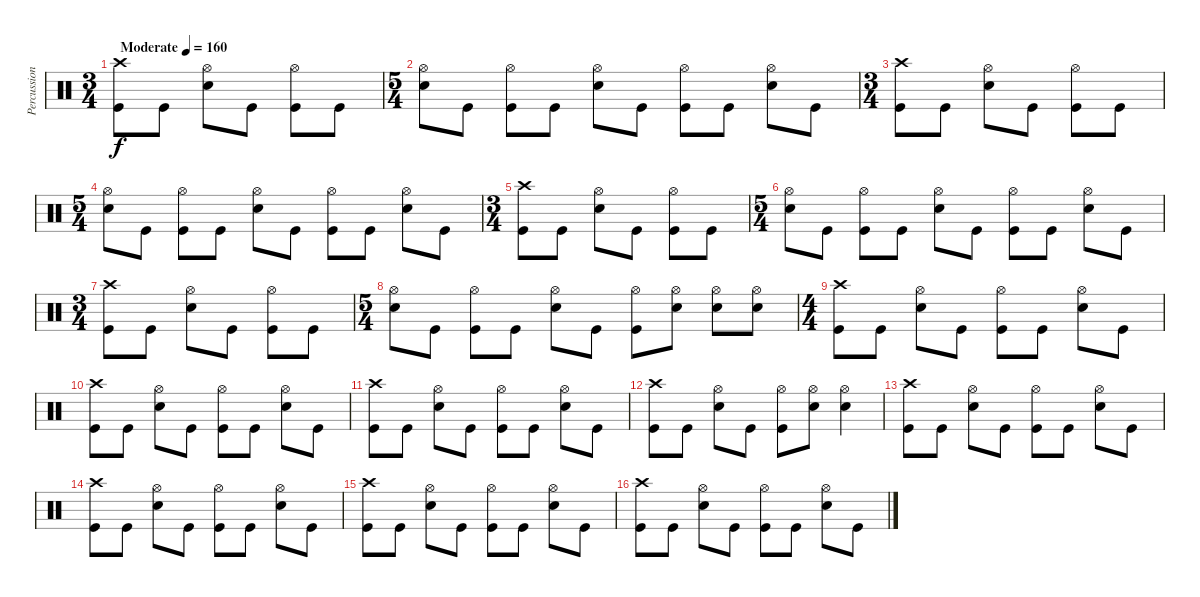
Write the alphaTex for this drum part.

\track ("Percussion" "Percussion") {instrument percussion}
\staff {score}
\articulation defaults
\ts (3 4)
\tempo (160 "Moderate")
\clef neutral
\ks c
("Crash high (hit)" "Kick (hit)").8{dy f} "Kick (hit)".8 ("Hi-Hat (open)" "Snare (hit) 2").8 "Kick (hit)".8 ("Hi-Hat (open)" "Kick (hit)").8 "Kick (hit)".8 |
\ts (5 4)
("Hi-Hat (open)" "Snare (hit) 2").8 "Kick (hit)".8 ("Hi-Hat (open)" "Kick (hit)").8 "Kick (hit)".8 ("Hi-Hat (open)" "Snare (hit) 2").8 "Kick (hit)".8 ("Hi-Hat (open)" "Kick (hit)").8 "Kick (hit)".8 ("Hi-Hat (open)" "Snare (hit) 2").8 "Kick (hit)".8 |
\ts (3 4)
("Crash high (hit)" "Kick (hit)").8 "Kick (hit)".8 ("Hi-Hat (open)" "Snare (hit) 2").8 "Kick (hit)".8 ("Hi-Hat (open)" "Kick (hit)").8 "Kick (hit)".8 |
\ts (5 4)
("Hi-Hat (open)" "Snare (hit) 2").8 "Kick (hit)".8 ("Hi-Hat (open)" "Kick (hit)").8 "Kick (hit)".8 ("Hi-Hat (open)" "Snare (hit) 2").8 "Kick (hit)".8 ("Hi-Hat (open)" "Kick (hit)").8 "Kick (hit)".8 ("Hi-Hat (open)" "Snare (hit) 2").8 "Kick (hit)".8 |
\ts (3 4)
("Crash high (hit)" "Kick (hit)").8 "Kick (hit)".8 ("Hi-Hat (open)" "Snare (hit) 2").8 "Kick (hit)".8 ("Hi-Hat (open)" "Kick (hit)").8 "Kick (hit)".8 |
\ts (5 4)
("Hi-Hat (open)" "Snare (hit) 2").8 "Kick (hit)".8 ("Hi-Hat (open)" "Kick (hit)").8 "Kick (hit)".8 ("Hi-Hat (open)" "Snare (hit) 2").8 "Kick (hit)".8 ("Hi-Hat (open)" "Kick (hit)").8 "Kick (hit)".8 ("Hi-Hat (open)" "Snare (hit) 2").8 "Kick (hit)".8 |
\ts (3 4)
("Crash high (hit)" "Kick (hit)").8 "Kick (hit)".8 ("Hi-Hat (open)" "Snare (hit) 2").8 "Kick (hit)".8 ("Hi-Hat (open)" "Kick (hit)").8 "Kick (hit)".8 |
\ts (5 4)
("Hi-Hat (open)" "Snare (hit) 2").8 "Kick (hit)".8 ("Hi-Hat (open)" "Kick (hit)").8 "Kick (hit)".8 ("Hi-Hat (open)" "Snare (hit) 2").8 "Kick (hit)".8 ("Hi-Hat (open)" "Kick (hit)").8 ("Hi-Hat (open)" "Snare (hit) 2").8 ("Hi-Hat (open)" "Snare (hit) 2").8 ("Hi-Hat (open)" "Snare (hit) 2").8 |
\ts (4 4)
("Crash high (hit)" "Kick (hit)").8 "Kick (hit)".8 ("Hi-Hat (open)" "Snare (hit) 2").8 "Kick (hit)".8 ("Hi-Hat (open)" "Kick (hit)").8 "Kick (hit)".8 ("Hi-Hat (open)" "Snare (hit) 2").8 "Kick (hit)".8 |
("Crash high (hit)" "Kick (hit)").8 "Kick (hit)".8 ("Hi-Hat (open)" "Snare (hit) 2").8 "Kick (hit)".8 ("Hi-Hat (open)" "Kick (hit)").8 "Kick (hit)".8 ("Hi-Hat (open)" "Snare (hit) 2").8 "Kick (hit)".8 |
("Crash high (hit)" "Kick (hit)").8 "Kick (hit)".8 ("Hi-Hat (open)" "Snare (hit) 2").8 "Kick (hit)".8 ("Hi-Hat (open)" "Kick (hit)").8 "Kick (hit)".8 ("Hi-Hat (open)" "Snare (hit) 2").8 "Kick (hit)".8 |
("Crash high (hit)" "Kick (hit)").8 "Kick (hit)".8 ("Hi-Hat (open)" "Snare (hit) 2").8 "Kick (hit)".8 ("Hi-Hat (open)" "Kick (hit)").8 ("Hi-Hat (open)" "Snare (hit) 2").8 ("Hi-Hat (open)" "Snare (hit) 2").4 |
("Crash high (hit)" "Kick (hit)").8 "Kick (hit)".8 ("Hi-Hat (open)" "Snare (hit) 2").8 "Kick (hit)".8 ("Hi-Hat (open)" "Kick (hit)").8 "Kick (hit)".8 ("Hi-Hat (open)" "Snare (hit) 2").8 "Kick (hit)".8 |
("Crash high (hit)" "Kick (hit)").8 "Kick (hit)".8 ("Hi-Hat (open)" "Snare (hit) 2").8 "Kick (hit)".8 ("Hi-Hat (open)" "Kick (hit)").8 "Kick (hit)".8 ("Hi-Hat (open)" "Snare (hit) 2").8 "Kick (hit)".8 |
("Crash high (hit)" "Kick (hit)").8 "Kick (hit)".8 ("Hi-Hat (open)" "Snare (hit) 2").8 "Kick (hit)".8 ("Hi-Hat (open)" "Kick (hit)").8 "Kick (hit)".8 ("Hi-Hat (open)" "Snare (hit) 2").8 "Kick (hit)".8 |
("Crash high (hit)" "Kick (hit)").8 "Kick (hit)".8 ("Hi-Hat (open)" "Snare (hit) 2").8 "Kick (hit)".8 ("Hi-Hat (open)" "Kick (hit)").8 "Kick (hit)".8 ("Hi-Hat (open)" "Snare (hit) 2").8 "Kick (hit)".8
